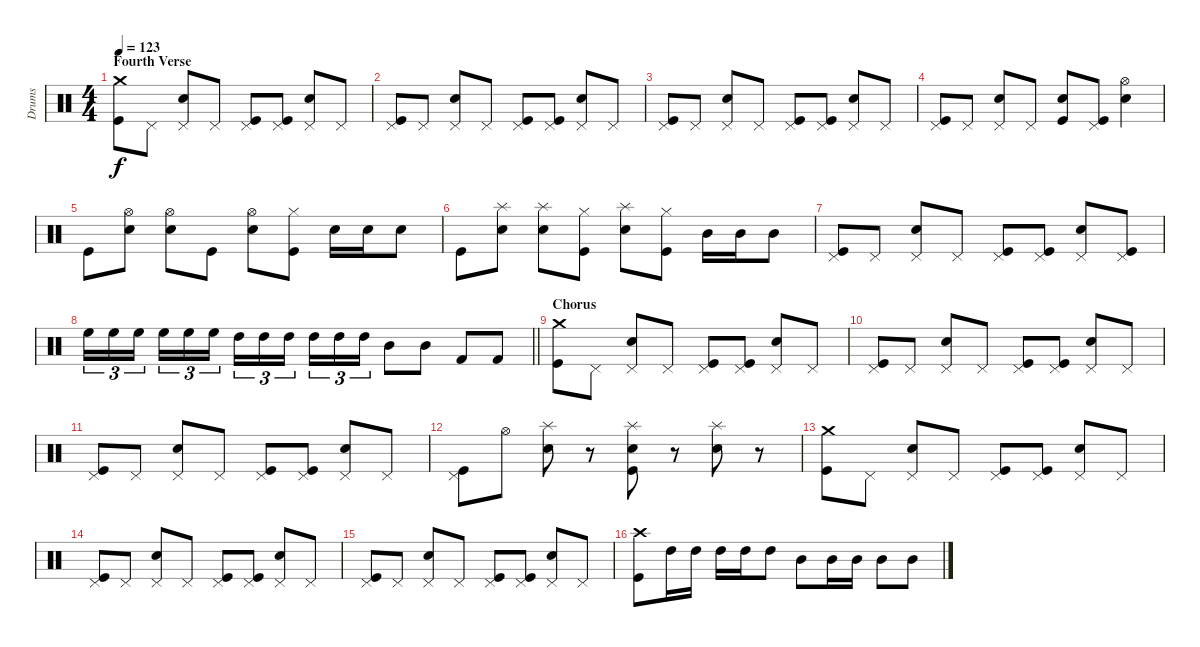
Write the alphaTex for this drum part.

\track ("Drums" "Drums") {instrument percussion}
\staff {score}
\articulation defaults
\ts (4 4)
\section ("" "Fourth Verse")
\tempo 123
\clef neutral
\ks c
("Crash medium (hit)" "Kick (hit)").8{dy f} "Pedal Hi-Hat (hit)".8 ("Pedal Hi-Hat (hit)" "Electric Snare (hit)").8 "Pedal Hi-Hat (hit)".8 ("Pedal Hi-Hat (hit)" "Kick (hit)").8 ("Pedal Hi-Hat (hit)" "Kick (hit)").8 ("Pedal Hi-Hat (hit)" "Electric Snare (hit)").8 "Pedal Hi-Hat (hit)".8 |
("Pedal Hi-Hat (hit)" "Kick (hit)").8 "Pedal Hi-Hat (hit)".8 ("Pedal Hi-Hat (hit)" "Electric Snare (hit)").8 "Pedal Hi-Hat (hit)".8 ("Pedal Hi-Hat (hit)" "Kick (hit)").8 ("Pedal Hi-Hat (hit)" "Kick (hit)").8 ("Pedal Hi-Hat (hit)" "Electric Snare (hit)").8 "Pedal Hi-Hat (hit)".8 |
("Pedal Hi-Hat (hit)" "Kick (hit)").8 "Pedal Hi-Hat (hit)".8 ("Pedal Hi-Hat (hit)" "Electric Snare (hit)").8 "Pedal Hi-Hat (hit)".8 ("Pedal Hi-Hat (hit)" "Kick (hit)").8 ("Pedal Hi-Hat (hit)" "Kick (hit)").8 ("Pedal Hi-Hat (hit)" "Electric Snare (hit)").8 "Pedal Hi-Hat (hit)".8 |
("Pedal Hi-Hat (hit)" "Kick (hit)").8 "Pedal Hi-Hat (hit)".8 ("Pedal Hi-Hat (hit)" "Electric Snare (hit)").8 "Pedal Hi-Hat (hit)".8 ("Snare (hit)" "Kick (hit)").8 ("Pedal Hi-Hat (hit)" "Kick (hit)").8 ("Hi-Hat (open)" "Electric Snare (hit)").4 |
"Kick (hit)".8 ("Hi-Hat (open)" "Electric Snare (hit)").8 ("Hi-Hat (open)" "Electric Snare (hit)").8 "Kick (hit)".8 ("Hi-Hat (open)" "Electric Snare (hit)").8 ("Hi-Hat (closed)" "Kick (hit)").8 "Electric Snare (hit)".16 "Electric Snare (hit)".16 "Electric Snare (hit)".8 |
"Kick (hit)".8 ("Splash (hit)" "Electric Snare (hit)").8 ("Splash (hit)" "Electric Snare (hit)").8 ("Hi-Hat (closed)" "Kick (hit)").8 ("Splash (hit)" "Electric Snare (hit)").8 ("Hi-Hat (closed)" "Kick (hit)").8 "Mid Tom (hit)".16 "Mid Tom (hit)".16 "Mid Tom (hit)".8 |
("Pedal Hi-Hat (hit)" "Kick (hit)").8 "Pedal Hi-Hat (hit)".8 ("Pedal Hi-Hat (hit)" "Electric Snare (hit)").8 "Pedal Hi-Hat (hit)".8 ("Pedal Hi-Hat (hit)" "Kick (hit)").8 ("Pedal Hi-Hat (hit)" "Kick (hit)").8 ("Pedal Hi-Hat (hit)" "Electric Snare (hit)").8 ("Pedal Hi-Hat (hit)" "Kick (hit)").8 |
\barLineRight lightlight "High Floor Tom (hit)".16{tu (3 2)} "High Floor Tom (hit)".16{tu (3 2)} "High Floor Tom (hit)".16{tu (3 2) beam splitsecondary} "High Floor Tom (hit)".16{tu (3 2)} "High Floor Tom (hit)".16{tu (3 2)} "High Floor Tom (hit)".16{tu (3 2)} "High Tom (hit)".16{tu (3 2)} "High Tom (hit)".16{tu (3 2)} "High Tom (hit)".16{tu (3 2) beam splitsecondary} "High Tom (hit)".16{tu (3 2)} "High Tom (hit)".16{tu (3 2)} "High Tom (hit)".16{tu (3 2)} "Mid Tom (hit)".8 "Mid Tom (hit)".8 "Kick (hit) 2".8 "Kick (hit) 2".8
|
\section ("" "Chorus")
("Crash medium (hit)" "Kick (hit)").8 "Pedal Hi-Hat (hit)".8 ("Pedal Hi-Hat (hit)" "Electric Snare (hit)").8 "Pedal Hi-Hat (hit)".8 ("Pedal Hi-Hat (hit)" "Kick (hit)").8 ("Pedal Hi-Hat (hit)" "Kick (hit)").8 ("Pedal Hi-Hat (hit)" "Electric Snare (hit)").8 "Pedal Hi-Hat (hit)".8 |
("Pedal Hi-Hat (hit)" "Kick (hit)").8 "Pedal Hi-Hat (hit)".8 ("Pedal Hi-Hat (hit)" "Electric Snare (hit)").8 "Pedal Hi-Hat (hit)".8 ("Pedal Hi-Hat (hit)" "Kick (hit)").8 ("Pedal Hi-Hat (hit)" "Kick (hit)").8 ("Pedal Hi-Hat (hit)" "Electric Snare (hit)").8 "Pedal Hi-Hat (hit)".8 |
("Pedal Hi-Hat (hit)" "Kick (hit)").8 "Pedal Hi-Hat (hit)".8 ("Pedal Hi-Hat (hit)" "Electric Snare (hit)").8 "Pedal Hi-Hat (hit)".8 ("Pedal Hi-Hat (hit)" "Kick (hit)").8 ("Pedal Hi-Hat (hit)" "Kick (hit)").8 ("Pedal Hi-Hat (hit)" "Electric Snare (hit)").8 "Pedal Hi-Hat (hit)".8 |
("Pedal Hi-Hat (hit)" "Kick (hit)").8 "Hi-Hat (open)".8 ("Splash (hit)" "Electric Snare (hit)").8 r.8 ("Splash (hit)" "Electric Snare (hit)" "Kick (hit)").8 r.8 ("Splash (hit)" "Electric Snare (hit)").8 r.8 |
("Crash medium (hit)" "Kick (hit)").8 "Pedal Hi-Hat (hit)".8 ("Pedal Hi-Hat (hit)" "Electric Snare (hit)").8 "Pedal Hi-Hat (hit)".8 ("Pedal Hi-Hat (hit)" "Kick (hit)").8 ("Pedal Hi-Hat (hit)" "Kick (hit)").8 ("Pedal Hi-Hat (hit)" "Electric Snare (hit)").8 "Pedal Hi-Hat (hit)".8 |
("Pedal Hi-Hat (hit)" "Kick (hit)").8 "Pedal Hi-Hat (hit)".8 ("Pedal Hi-Hat (hit)" "Electric Snare (hit)").8 "Pedal Hi-Hat (hit)".8 ("Pedal Hi-Hat (hit)" "Kick (hit)").8 ("Pedal Hi-Hat (hit)" "Kick (hit)").8 ("Pedal Hi-Hat (hit)" "Electric Snare (hit)").8 "Pedal Hi-Hat (hit)".8 |
("Pedal Hi-Hat (hit)" "Kick (hit)").8 "Pedal Hi-Hat (hit)".8 ("Pedal Hi-Hat (hit)" "Electric Snare (hit)").8 "Pedal Hi-Hat (hit)".8 ("Pedal Hi-Hat (hit)" "Kick (hit)").8 ("Pedal Hi-Hat (hit)" "Kick (hit)").8 ("Pedal Hi-Hat (hit)" "Electric Snare (hit)").8 "Pedal Hi-Hat (hit)".8 |
("Crash high (hit)" "Kick (hit)").8 "High Tom (hit)".16 "High Tom (hit)".16 "High Tom (hit)".16 "High Tom (hit)".16 "High Tom (hit)".8 "Mid Tom (hit)".8 "Mid Tom (hit)".16 "Mid Tom (hit)".16 "Mid Tom (hit)".8 "Mid Tom (hit)".8
